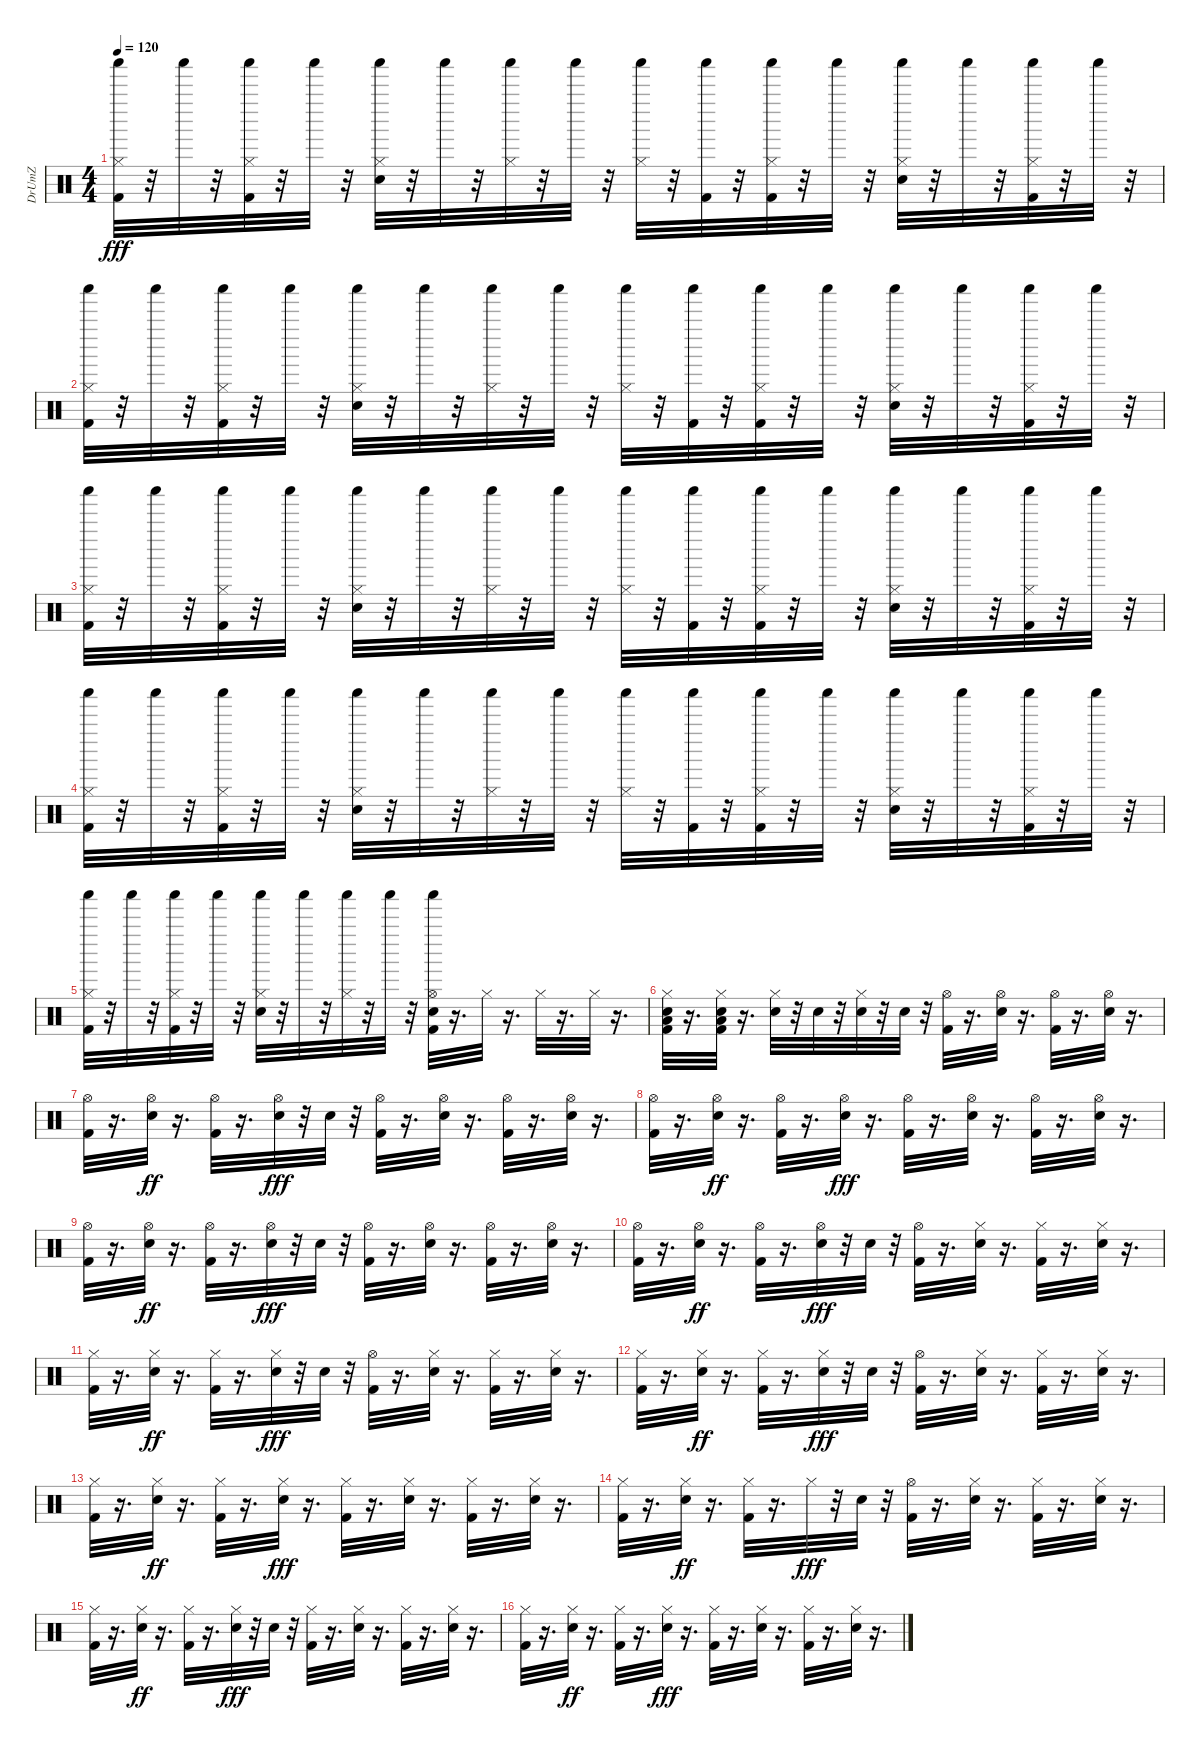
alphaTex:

\track ("DrUmZ" "DrUmZ") {instrument percussion}
\staff {score}
\articulation defaults
\ts (4 4)
\tempo 120
\clef neutral
\ks c
("Hi-Hat (closed)" "Kick (hit) 2" "Shaker (hit)").32{dy fff} r.32 "Shaker (hit)".32 r.32 ("Shaker (hit)" "Kick (hit) 2" "Hi-Hat (closed)").32 r.32 "Shaker (hit)".32 r.32 ("Shaker (hit)" "Electric Snare (hit)" "Hi-Hat (closed)").32 r.32 "Shaker (hit)".32 r.32 ("Shaker (hit)" "Hi-Hat (closed)").32 r.32 "Shaker (hit)".32 r.32 ("Shaker (hit)" "Hi-Hat (closed)").32 r.32 ("Shaker (hit)" "Kick (hit) 2").32 r.32 ("Shaker (hit)" "Kick (hit) 2" "Hi-Hat (closed)").32 r.32 "Shaker (hit)".32 r.32 ("Shaker (hit)" "Electric Snare (hit)" "Hi-Hat (closed)").32 r.32 "Shaker (hit)".32 r.32 ("Shaker (hit)" "Kick (hit) 2" "Hi-Hat (closed)").32 r.32 "Shaker (hit)".32 r.32 |
("Hi-Hat (closed)" "Kick (hit) 2" "Shaker (hit)").32 r.32 "Shaker (hit)".32 r.32 ("Shaker (hit)" "Kick (hit) 2" "Hi-Hat (closed)").32 r.32 "Shaker (hit)".32 r.32 ("Shaker (hit)" "Electric Snare (hit)" "Hi-Hat (closed)").32 r.32 "Shaker (hit)".32 r.32 ("Shaker (hit)" "Hi-Hat (closed)").32 r.32 "Shaker (hit)".32 r.32 ("Shaker (hit)" "Hi-Hat (closed)").32 r.32 ("Shaker (hit)" "Kick (hit) 2").32 r.32 ("Shaker (hit)" "Kick (hit) 2" "Hi-Hat (closed)").32 r.32 "Shaker (hit)".32 r.32 ("Shaker (hit)" "Electric Snare (hit)" "Hi-Hat (closed)").32 r.32 "Shaker (hit)".32 r.32 ("Shaker (hit)" "Kick (hit) 2" "Hi-Hat (closed)").32 r.32 "Shaker (hit)".32 r.32 |
("Hi-Hat (closed)" "Kick (hit) 2" "Shaker (hit)").32 r.32 "Shaker (hit)".32 r.32 ("Shaker (hit)" "Kick (hit) 2" "Hi-Hat (closed)").32 r.32 "Shaker (hit)".32 r.32 ("Shaker (hit)" "Electric Snare (hit)" "Hi-Hat (closed)").32 r.32 "Shaker (hit)".32 r.32 ("Shaker (hit)" "Hi-Hat (closed)").32 r.32 "Shaker (hit)".32 r.32 ("Shaker (hit)" "Hi-Hat (closed)").32 r.32 ("Shaker (hit)" "Kick (hit) 2").32 r.32 ("Shaker (hit)" "Kick (hit) 2" "Hi-Hat (closed)").32 r.32 "Shaker (hit)".32 r.32 ("Shaker (hit)" "Electric Snare (hit)" "Hi-Hat (closed)").32 r.32 "Shaker (hit)".32 r.32 ("Shaker (hit)" "Kick (hit) 2" "Hi-Hat (closed)").32 r.32 "Shaker (hit)".32 r.32 |
("Hi-Hat (closed)" "Kick (hit) 2" "Shaker (hit)").32 r.32 "Shaker (hit)".32 r.32 ("Shaker (hit)" "Kick (hit) 2" "Hi-Hat (closed)").32 r.32 "Shaker (hit)".32 r.32 ("Shaker (hit)" "Electric Snare (hit)" "Hi-Hat (closed)").32 r.32 "Shaker (hit)".32 r.32 ("Shaker (hit)" "Hi-Hat (closed)").32 r.32 "Shaker (hit)".32 r.32 ("Shaker (hit)" "Hi-Hat (closed)").32 r.32 ("Shaker (hit)" "Kick (hit) 2").32 r.32 ("Shaker (hit)" "Kick (hit) 2" "Hi-Hat (closed)").32 r.32 "Shaker (hit)".32 r.32 ("Shaker (hit)" "Electric Snare (hit)" "Hi-Hat (closed)").32 r.32 "Shaker (hit)".32 r.32 ("Shaker (hit)" "Kick (hit) 2" "Hi-Hat (closed)").32 r.32 "Shaker (hit)".32 r.32 |
("Hi-Hat (closed)" "Kick (hit) 2" "Shaker (hit)").32 r.32 "Shaker (hit)".32 r.32 ("Shaker (hit)" "Kick (hit) 2" "Hi-Hat (closed)").32 r.32 "Shaker (hit)".32 r.32 ("Shaker (hit)" "Electric Snare (hit)" "Hi-Hat (closed)").32 r.32 "Shaker (hit)".32 r.32 ("Shaker (hit)" "Hi-Hat (closed)").32 r.32 "Shaker (hit)".32 r.32 ("Hi-Hat (open)" "Electric Snare (hit)" "Kick (hit) 2" "Shaker (hit)").32 r.16{d} "Hi-Hat (closed)".32 r.16{d} "Hi-Hat (closed)".32 r.16{d} "Hi-Hat (closed)".32 r.16{d} |
("Hi-Hat (closed)" "Low Floor Tom (hit)" "Kick (hit) 2" "Snare (hit) 2").32 r.16{d} ("Hi-Hat (closed)" "Low Floor Tom (hit)" "Kick (hit) 2" "Snare (hit) 2").32 r.16{d} ("Hi-Hat (closed)" "Electric Snare (hit)").32 r.32 "Electric Snare (hit)".32 r.32 ("Hi-Hat (closed)" "Electric Snare (hit)").32 r.32 "Electric Snare (hit)".32 r.32 ("Hi-Hat (open)" "Kick (hit) 2").32 r.16{d} ("Electric Snare (hit)" "Hi-Hat (open)").32 r.16{d} ("Kick (hit) 2" "Hi-Hat (open)").32 r.16{d} ("Electric Snare (hit)" "Hi-Hat (open)").32 r.16{d} |
("Kick (hit) 2" "Hi-Hat (open)").32 r.16{d} ("Electric Snare (hit)" "Hi-Hat (open)").32{dy ff} r.16{d} ("Kick (hit) 2" "Hi-Hat (open)").32 r.16{d} ("Electric Snare (hit)" "Hi-Hat (open)").32{dy fff} r.32 "Electric Snare (hit)".32 r.32 ("Kick (hit) 2" "Hi-Hat (open)").32 r.16{d} ("Electric Snare (hit)" "Hi-Hat (open)").32 r.16{d} ("Kick (hit) 2" "Hi-Hat (open)").32 r.16{d} ("Electric Snare (hit)" "Hi-Hat (open)").32 r.16{d} |
("Kick (hit) 2" "Hi-Hat (open)").32 r.16{d} ("Electric Snare (hit)" "Hi-Hat (open)").32{dy ff} r.16{d} ("Kick (hit) 2" "Hi-Hat (open)").32 r.16{d} ("Electric Snare (hit)" "Hi-Hat (open)").32{dy fff} r.16{d} ("Kick (hit) 2" "Hi-Hat (open)").32 r.16{d} ("Electric Snare (hit)" "Hi-Hat (open)").32 r.16{d} ("Kick (hit) 2" "Hi-Hat (open)").32 r.16{d} ("Electric Snare (hit)" "Hi-Hat (open)").32 r.16{d} |
("Kick (hit) 2" "Hi-Hat (open)").32 r.16{d} ("Electric Snare (hit)" "Hi-Hat (open)").32{dy ff} r.16{d} ("Kick (hit) 2" "Hi-Hat (open)").32 r.16{d} ("Electric Snare (hit)" "Hi-Hat (open)").32{dy fff} r.32 "Electric Snare (hit)".32 r.32 ("Kick (hit) 2" "Hi-Hat (open)").32 r.16{d} ("Electric Snare (hit)" "Hi-Hat (open)").32 r.16{d} ("Kick (hit) 2" "Hi-Hat (open)").32 r.16{d} ("Electric Snare (hit)" "Hi-Hat (open)").32 r.16{d} |
("Kick (hit) 2" "Hi-Hat (open)").32 r.16{d} ("Electric Snare (hit)" "Hi-Hat (open)").32{dy ff} r.16{d} ("Kick (hit) 2" "Hi-Hat (open)").32 r.16{d} ("Electric Snare (hit)" "Hi-Hat (open)").32{dy fff} r.32 "Electric Snare (hit)".32 r.32 ("Kick (hit) 2" "Hi-Hat (open)").32 r.16{d} ("Electric Snare (hit)" "Hi-Hat (closed)").32 r.16{d} ("Kick (hit) 2" "Hi-Hat (closed)").32 r.16{d} ("Electric Snare (hit)" "Hi-Hat (closed)").32 r.16{d} |
("Kick (hit) 2" "Hi-Hat (closed)").32 r.16{d} ("Electric Snare (hit)" "Hi-Hat (closed)").32{dy ff} r.16{d} ("Kick (hit) 2" "Hi-Hat (closed)").32 r.16{d} ("Electric Snare (hit)" "Hi-Hat (closed)").32{dy fff} r.32 "Electric Snare (hit)".32 r.32 ("Hi-Hat (open)" "Kick (hit) 2").32 r.16{d} ("Electric Snare (hit)" "Hi-Hat (closed)").32 r.16{d} ("Kick (hit) 2" "Hi-Hat (closed)").32 r.16{d} ("Electric Snare (hit)" "Hi-Hat (closed)").32 r.16{d} |
("Kick (hit) 2" "Hi-Hat (closed)").32 r.16{d} ("Electric Snare (hit)" "Hi-Hat (closed)").32{dy ff} r.16{d} ("Kick (hit) 2" "Hi-Hat (closed)").32 r.16{d} ("Electric Snare (hit)" "Hi-Hat (closed)").32{dy fff} r.32 "Electric Snare (hit)".32 r.32 ("Hi-Hat (open)" "Kick (hit) 2").32 r.16{d} ("Electric Snare (hit)" "Hi-Hat (closed)").32 r.16{d} ("Kick (hit) 2" "Hi-Hat (closed)").32 r.16{d} ("Electric Snare (hit)" "Hi-Hat (closed)").32 r.16{d} |
("Kick (hit) 2" "Hi-Hat (closed)").32 r.16{d} ("Electric Snare (hit)" "Hi-Hat (closed)").32{dy ff} r.16{d} ("Kick (hit) 2" "Hi-Hat (closed)").32 r.16{d} ("Electric Snare (hit)" "Hi-Hat (closed)").32{dy fff} r.16{d} ("Kick (hit) 2" "Hi-Hat (closed)").32 r.16{d} ("Electric Snare (hit)" "Hi-Hat (closed)").32 r.16{d} ("Kick (hit) 2" "Hi-Hat (closed)").32 r.16{d} ("Electric Snare (hit)" "Hi-Hat (closed)").32 r.16{d} |
("Kick (hit) 2" "Hi-Hat (closed)").32 r.16{d} ("Electric Snare (hit)" "Hi-Hat (closed)").32{dy ff} r.16{d} ("Kick (hit) 2" "Hi-Hat (closed)").32 r.16{d} "Hi-Hat (closed)".32{dy fff} r.32 "Electric Snare (hit)".32 r.32 ("Kick (hit) 2" "Hi-Hat (open)").32 r.16{d} ("Electric Snare (hit)" "Hi-Hat (closed)").32 r.16{d} ("Kick (hit) 2" "Hi-Hat (closed)").32 r.16{d} ("Electric Snare (hit)" "Hi-Hat (closed)").32 r.16{d} |
("Kick (hit) 2" "Hi-Hat (closed)").32 r.16{d} ("Electric Snare (hit)" "Hi-Hat (closed)").32{dy ff} r.16{d} ("Kick (hit) 2" "Hi-Hat (closed)").32 r.16{d} ("Electric Snare (hit)" "Hi-Hat (closed)").32{dy fff} r.32 "Electric Snare (hit)".32 r.32 ("Hi-Hat (closed)" "Kick (hit) 2").32 r.16{d} ("Electric Snare (hit)" "Hi-Hat (closed)").32 r.16{d} ("Kick (hit) 2" "Hi-Hat (closed)").32 r.16{d} ("Electric Snare (hit)" "Hi-Hat (closed)").32 r.16{d} |
("Kick (hit) 2" "Hi-Hat (closed)").32 r.16{d} ("Electric Snare (hit)" "Hi-Hat (closed)").32{dy ff} r.16{d} ("Kick (hit) 2" "Hi-Hat (closed)").32 r.16{d} ("Electric Snare (hit)" "Hi-Hat (closed)").32{dy fff} r.16{d} ("Hi-Hat (closed)" "Kick (hit) 2").32 r.16{d} ("Electric Snare (hit)" "Hi-Hat (closed)").32 r.16{d} ("Kick (hit) 2" "Hi-Hat (closed)").32 r.16{d} ("Electric Snare (hit)" "Hi-Hat (closed)").32 r.16{d}
